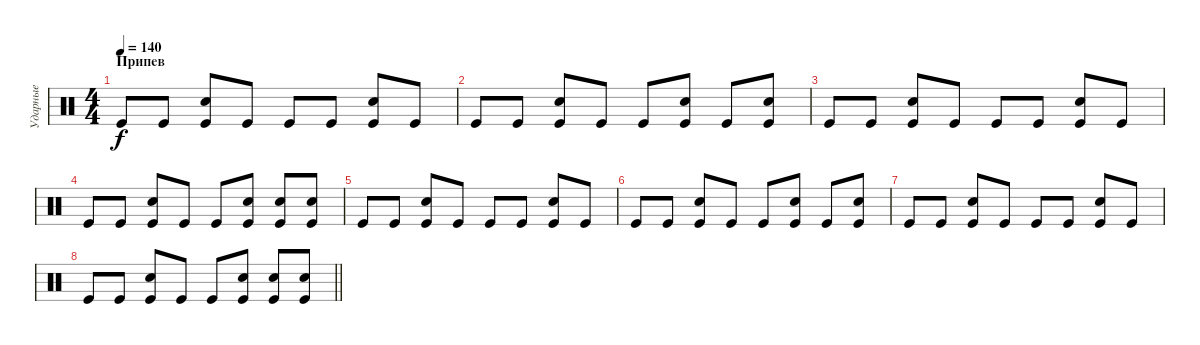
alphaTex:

\track ("Ударные" "Ударные") {instrument percussion}
\staff {score}
\articulation defaults
\ts (4 4)
\section ("" "Припев")
\tempo 140
\clef neutral
\ks c "Kick (hit)".8{dy f} "Kick (hit)".8
("Kick (hit)" "Snare (hit) 2").8 "Kick (hit)".8 "Kick (hit)".8 "Kick (hit)".8 ("Kick (hit)" "Snare (hit) 2").8 "Kick (hit)".8 |
"Kick (hit)".8 "Kick (hit)".8 ("Kick (hit)" "Snare (hit) 2").8 "Kick (hit)".8 "Kick (hit)".8 ("Kick (hit)" "Snare (hit) 2").8 "Kick (hit)".8 ("Kick (hit)" "Snare (hit) 2").8 |
"Kick (hit)".8 "Kick (hit)".8 ("Kick (hit)" "Snare (hit) 2").8 "Kick (hit)".8 "Kick (hit)".8 "Kick (hit)".8 ("Kick (hit)" "Snare (hit) 2").8 "Kick (hit)".8 |
"Kick (hit)".8 "Kick (hit)".8 ("Kick (hit)" "Snare (hit) 2").8 "Kick (hit)".8 "Kick (hit)".8 ("Kick (hit)" "Snare (hit) 2").8 ("Kick (hit)" "Snare (hit) 2").8 ("Kick (hit)" "Snare (hit) 2").8 |
"Kick (hit)".8 "Kick (hit)".8 ("Kick (hit)" "Snare (hit) 2").8 "Kick (hit)".8 "Kick (hit)".8 "Kick (hit)".8 ("Kick (hit)" "Snare (hit) 2").8 "Kick (hit)".8 |
"Kick (hit)".8 "Kick (hit)".8 ("Kick (hit)" "Snare (hit) 2").8 "Kick (hit)".8 "Kick (hit)".8 ("Kick (hit)" "Snare (hit) 2").8 "Kick (hit)".8 ("Kick (hit)" "Snare (hit) 2").8 |
"Kick (hit)".8 "Kick (hit)".8 ("Kick (hit)" "Snare (hit) 2").8 "Kick (hit)".8 "Kick (hit)".8 "Kick (hit)".8 ("Kick (hit)" "Snare (hit) 2").8 "Kick (hit)".8 |
\barLineRight lightlight "Kick (hit)".8 "Kick (hit)".8
("Kick (hit)" "Snare (hit) 2").8 "Kick (hit)".8 "Kick (hit)".8 ("Kick (hit)" "Snare (hit) 2").8 ("Kick (hit)" "Snare (hit) 2").8 ("Kick (hit)" "Snare (hit) 2").8
